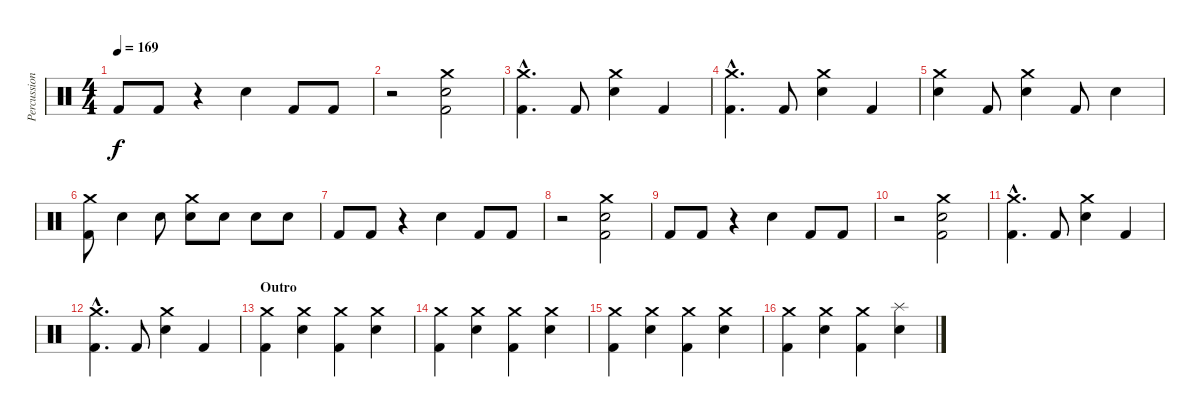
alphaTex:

\track ("Percussion" "Percussion") {instrument percussion}
\staff {score}
\articulation defaults
\ts (4 4)
\tempo 169
\clef neutral
\ks c "Kick (hit) 2".8{dy f} "Kick (hit) 2".8
r.4 "Snare (hit) 2".4 "Kick (hit) 2".8 "Kick (hit) 2".8 |
r.2 ("Snare (hit) 2" "Kick (hit) 2" "Crash medium (hit)").2 |
("Crash medium (hit)"{hac} "Kick (hit) 2"{hac}).4{d} "Kick (hit) 2".8 ("Crash medium (hit)" "Snare (hit) 2").4 "Kick (hit) 2".4 |
("Crash medium (hit)"{hac} "Kick (hit) 2"{hac}).4{d} "Kick (hit) 2".8 ("Crash medium (hit)" "Snare (hit) 2").4 "Kick (hit) 2".4 |
("Crash medium (hit)" "Snare (hit) 2").4 "Kick (hit) 2".8 ("Crash medium (hit)" "Snare (hit) 2").4 "Kick (hit) 2".8 "Snare (hit) 2".4 |
("Crash medium (hit)" "Kick (hit) 2").8 "Snare (hit) 2".4 "Snare (hit) 2".8 ("Crash medium (hit)" "Snare (hit) 2").8 "Snare (hit) 2".8 "Snare (hit) 2".8 "Snare (hit) 2".8 |
"Kick (hit) 2".8 "Kick (hit) 2".8 r.4 "Snare (hit) 2".4 "Kick (hit) 2".8 "Kick (hit) 2".8 |
r.2 ("Snare (hit) 2" "Kick (hit) 2" "Crash medium (hit)").2 |
"Kick (hit) 2".8 "Kick (hit) 2".8 r.4 "Snare (hit) 2".4 "Kick (hit) 2".8 "Kick (hit) 2".8 |
r.2 ("Snare (hit) 2" "Kick (hit) 2" "Crash medium (hit)").2 |
("Crash medium (hit)"{hac} "Kick (hit) 2"{hac}).4{d} "Kick (hit) 2".8 ("Crash medium (hit)" "Snare (hit) 2").4 "Kick (hit) 2".4 |
("Crash medium (hit)"{hac} "Kick (hit) 2"{hac}).4{d} "Kick (hit) 2".8 ("Crash medium (hit)" "Snare (hit) 2").4 "Kick (hit) 2".4 |
\section ("" "Outro")
("Crash medium (hit)" "Kick (hit) 2").4 ("Snare (hit) 2" "Crash medium (hit)").4 ("Crash medium (hit)" "Kick (hit) 2").4 ("Snare (hit) 2" "Crash medium (hit)").4 |
("Crash medium (hit)" "Kick (hit) 2").4 ("Snare (hit) 2" "Crash medium (hit)").4 ("Crash medium (hit)" "Kick (hit) 2").4 ("Snare (hit) 2" "Crash medium (hit)").4 |
("Crash medium (hit)" "Kick (hit) 2").4 ("Snare (hit) 2" "Crash medium (hit)").4 ("Crash medium (hit)" "Kick (hit) 2").4 ("Snare (hit) 2" "Crash medium (hit)").4 |
("Crash medium (hit)" "Kick (hit) 2").4 ("Snare (hit) 2" "Crash medium (hit)").4 ("Crash medium (hit)" "Kick (hit) 2").4 ("Snare (hit) 2" "Splash (hit)").4
